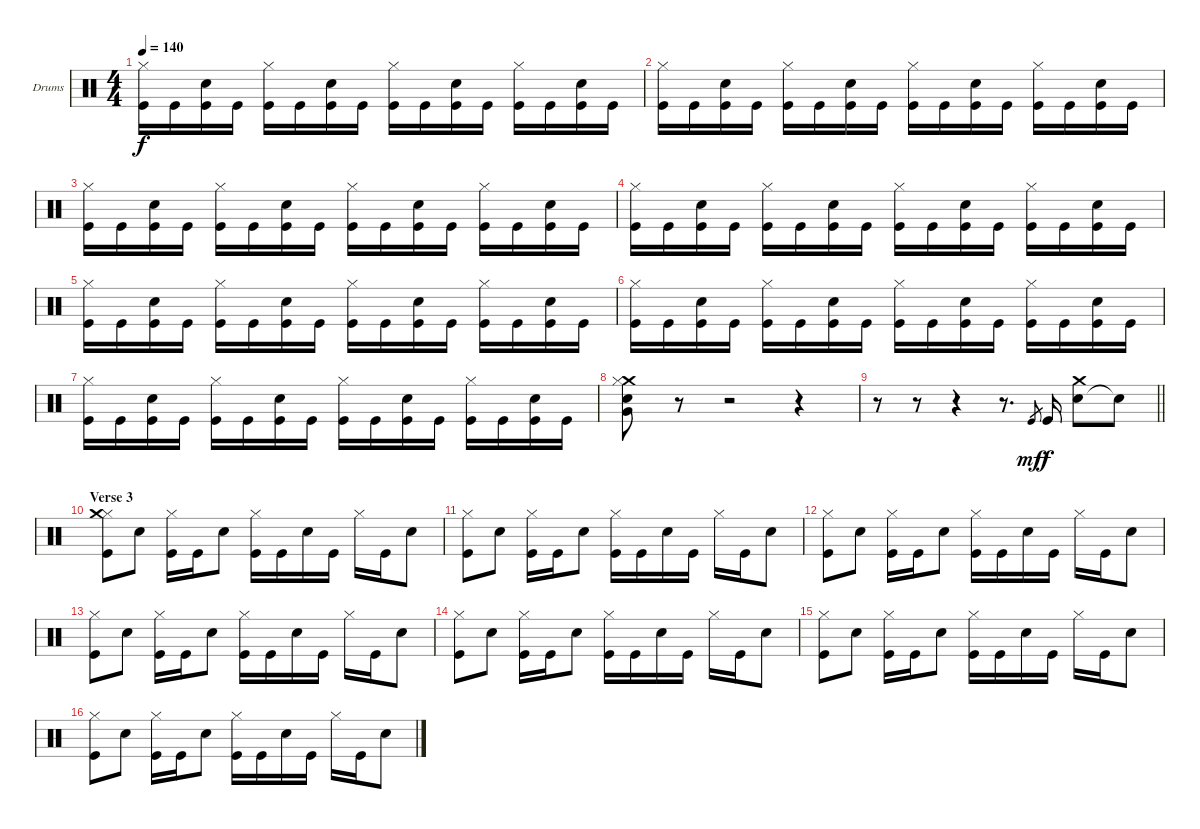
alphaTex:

\bracketExtendMode groupsimilarinstruments
\firstSystemTrackNameOrientation horizontal
\otherSystemsTrackNameOrientation horizontal
\track ("Drumkit" "Drums") {instrument percussion}
\staff {score}
\articulation defaults
\ts (4 4)
\tempo 140
\clef neutral
\ks c
("Hi-Hat (closed)" "Kick (hit)").16{dy f} "Kick (hit)".16 ("Snare (hit) 2" "Kick (hit)").16 "Kick (hit)".16 ("Hi-Hat (closed)" "Kick (hit)").16 "Kick (hit)".16 ("Snare (hit) 2" "Kick (hit)").16 "Kick (hit)".16 ("Hi-Hat (closed)" "Kick (hit)").16 "Kick (hit)".16 ("Snare (hit) 2" "Kick (hit)").16 "Kick (hit)".16 ("Hi-Hat (closed)" "Kick (hit)").16 "Kick (hit)".16 ("Snare (hit) 2" "Kick (hit)").16 "Kick (hit)".16 |
("Hi-Hat (closed)" "Kick (hit)").16 "Kick (hit)".16 ("Snare (hit) 2" "Kick (hit)").16 "Kick (hit)".16 ("Hi-Hat (closed)" "Kick (hit)").16 "Kick (hit)".16 ("Snare (hit) 2" "Kick (hit)").16 "Kick (hit)".16 ("Hi-Hat (closed)" "Kick (hit)").16 "Kick (hit)".16 ("Snare (hit) 2" "Kick (hit)").16 "Kick (hit)".16 ("Hi-Hat (closed)" "Kick (hit)").16 "Kick (hit)".16 ("Snare (hit) 2" "Kick (hit)").16 "Kick (hit)".16 |
("Hi-Hat (closed)" "Kick (hit)").16 "Kick (hit)".16 ("Snare (hit) 2" "Kick (hit)").16 "Kick (hit)".16 ("Hi-Hat (closed)" "Kick (hit)").16 "Kick (hit)".16 ("Snare (hit) 2" "Kick (hit)").16 "Kick (hit)".16 ("Hi-Hat (closed)" "Kick (hit)").16 "Kick (hit)".16 ("Snare (hit) 2" "Kick (hit)").16 "Kick (hit)".16 ("Hi-Hat (closed)" "Kick (hit)").16 "Kick (hit)".16 ("Snare (hit) 2" "Kick (hit)").16 "Kick (hit)".16 |
("Hi-Hat (closed)" "Kick (hit)").16 "Kick (hit)".16 ("Snare (hit) 2" "Kick (hit)").16 "Kick (hit)".16 ("Hi-Hat (closed)" "Kick (hit)").16 "Kick (hit)".16 ("Snare (hit) 2" "Kick (hit)").16 "Kick (hit)".16 ("Hi-Hat (closed)" "Kick (hit)").16 "Kick (hit)".16 ("Snare (hit) 2" "Kick (hit)").16 "Kick (hit)".16 ("Hi-Hat (closed)" "Kick (hit)").16 "Kick (hit)".16 ("Snare (hit) 2" "Kick (hit)").16 "Kick (hit)".16 |
("Hi-Hat (closed)" "Kick (hit)").16 "Kick (hit)".16 ("Snare (hit) 2" "Kick (hit)").16 "Kick (hit)".16 ("Hi-Hat (closed)" "Kick (hit)").16 "Kick (hit)".16 ("Snare (hit) 2" "Kick (hit)").16 "Kick (hit)".16 ("Hi-Hat (closed)" "Kick (hit)").16 "Kick (hit)".16 ("Snare (hit) 2" "Kick (hit)").16 "Kick (hit)".16 ("Hi-Hat (closed)" "Kick (hit)").16 "Kick (hit)".16 ("Snare (hit) 2" "Kick (hit)").16 "Kick (hit)".16 |
("Hi-Hat (closed)" "Kick (hit)").16 "Kick (hit)".16 ("Snare (hit) 2" "Kick (hit)").16 "Kick (hit)".16 ("Hi-Hat (closed)" "Kick (hit)").16 "Kick (hit)".16 ("Snare (hit) 2" "Kick (hit)").16 "Kick (hit)".16 ("Hi-Hat (closed)" "Kick (hit)").16 "Kick (hit)".16 ("Snare (hit) 2" "Kick (hit)").16 "Kick (hit)".16 ("Hi-Hat (closed)" "Kick (hit)").16 "Kick (hit)".16 ("Snare (hit) 2" "Kick (hit)").16 "Kick (hit)".16 |
("Hi-Hat (closed)" "Kick (hit)").16 "Kick (hit)".16 ("Snare (hit) 2" "Kick (hit)").16 "Kick (hit)".16 ("Hi-Hat (closed)" "Kick (hit)").16 "Kick (hit)".16 ("Snare (hit) 2" "Kick (hit)").16 "Kick (hit)".16 ("Hi-Hat (closed)" "Kick (hit)").16 "Kick (hit)".16 ("Snare (hit) 2" "Kick (hit)").16 "Kick (hit)".16 ("Hi-Hat (closed)" "Kick (hit)").16 "Kick (hit)".16 ("Snare (hit) 2" "Kick (hit)").16 "Kick (hit)".16 |
("Crash medium (hit)" "Snare (hit) 2" "Hi-Hat (closed)" "Very Low Tom (hit)").8 r.8 r.2 r.4 |
\barLineRight lightlight
r.8 r.8 r.4 r.8{d} "Kick (hit)".8{gr dy mf} "Kick (hit)".16{dy f} ("Snare (hit) 2" "Crash medium (hit)").8 "Snare (hit) 2"{t}.8 |
\section ("" "Verse 3")
("Hi-Hat (closed)" "Kick (hit)" "Crash medium (hit)").8 "Snare (hit) 2".8 ("Hi-Hat (closed)" "Kick (hit)").16 "Kick (hit)".16 "Snare (hit) 2".8 ("Hi-Hat (closed)" "Kick (hit)").16 "Kick (hit)".16 "Snare (hit) 2".16 "Kick (hit)".16 "Hi-Hat (closed)".16 "Kick (hit)".16 "Snare (hit) 2".8 |
("Hi-Hat (closed)" "Kick (hit)").8 "Snare (hit) 2".8 ("Hi-Hat (closed)" "Kick (hit)").16 "Kick (hit)".16 "Snare (hit) 2".8 ("Hi-Hat (closed)" "Kick (hit)").16 "Kick (hit)".16 "Snare (hit) 2".16 "Kick (hit)".16 "Hi-Hat (closed)".16 "Kick (hit)".16 "Snare (hit) 2".8 |
("Hi-Hat (closed)" "Kick (hit)").8 "Snare (hit) 2".8 ("Hi-Hat (closed)" "Kick (hit)").16 "Kick (hit)".16 "Snare (hit) 2".8 ("Hi-Hat (closed)" "Kick (hit)").16 "Kick (hit)".16 "Snare (hit) 2".16 "Kick (hit)".16 "Hi-Hat (closed)".16 "Kick (hit)".16 "Snare (hit) 2".8 |
("Hi-Hat (closed)" "Kick (hit)").8 "Snare (hit) 2".8 ("Hi-Hat (closed)" "Kick (hit)").16 "Kick (hit)".16 "Snare (hit) 2".8 ("Hi-Hat (closed)" "Kick (hit)").16 "Kick (hit)".16 "Snare (hit) 2".16 "Kick (hit)".16 "Hi-Hat (closed)".16 "Kick (hit)".16 "Snare (hit) 2".8 |
("Hi-Hat (closed)" "Kick (hit)").8 "Snare (hit) 2".8 ("Hi-Hat (closed)" "Kick (hit)").16 "Kick (hit)".16 "Snare (hit) 2".8 ("Hi-Hat (closed)" "Kick (hit)").16 "Kick (hit)".16 "Snare (hit) 2".16 "Kick (hit)".16 "Hi-Hat (closed)".16 "Kick (hit)".16 "Snare (hit) 2".8 |
("Hi-Hat (closed)" "Kick (hit)").8 "Snare (hit) 2".8 ("Hi-Hat (closed)" "Kick (hit)").16 "Kick (hit)".16 "Snare (hit) 2".8 ("Hi-Hat (closed)" "Kick (hit)").16 "Kick (hit)".16 "Snare (hit) 2".16 "Kick (hit)".16 "Hi-Hat (closed)".16 "Kick (hit)".16 "Snare (hit) 2".8 |
("Hi-Hat (closed)" "Kick (hit)").8 "Snare (hit) 2".8 ("Hi-Hat (closed)" "Kick (hit)").16 "Kick (hit)".16 "Snare (hit) 2".8 ("Hi-Hat (closed)" "Kick (hit)").16 "Kick (hit)".16 "Snare (hit) 2".16 "Kick (hit)".16 "Hi-Hat (closed)".16 "Kick (hit)".16 "Snare (hit) 2".8
